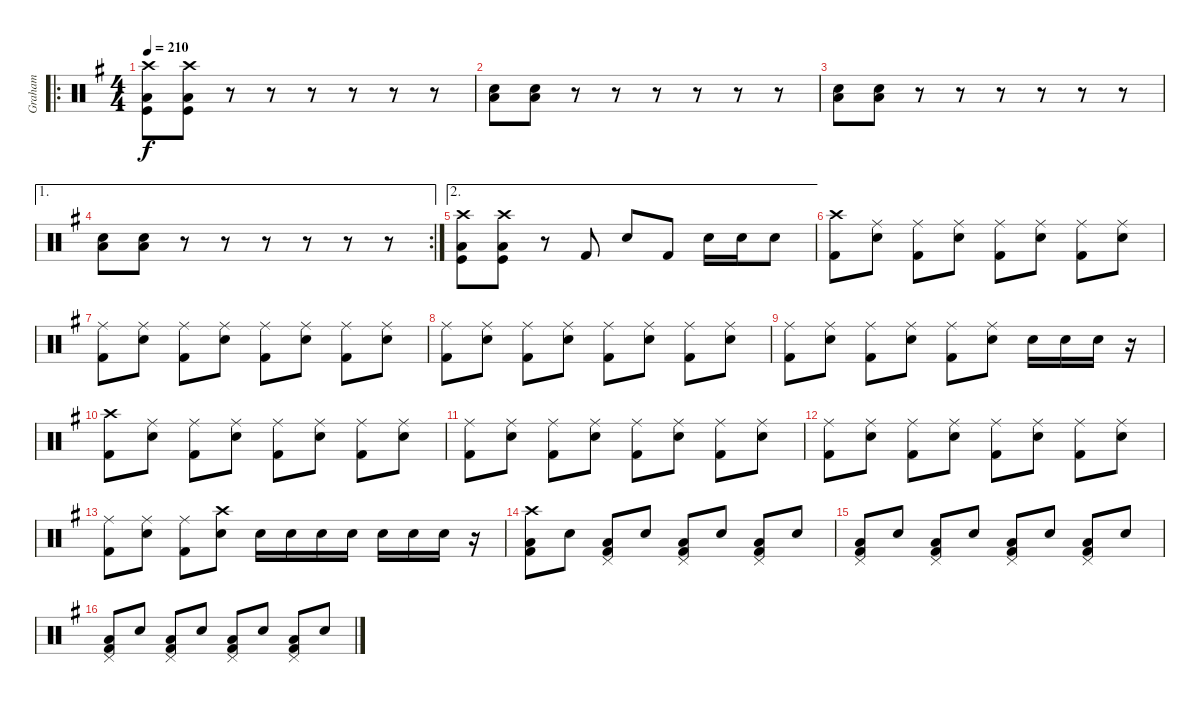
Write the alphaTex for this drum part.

\track ("Graham" "Graham") {instrument percussion}
\staff {score}
\articulation defaults
\ro
\ts (4 4)
\tempo 210
\clef neutral
\ks g
("Crash high (hit)" "Low Floor Tom (hit)" "Kick (hit)").8{dy f} ("Crash high (hit)" "Low Floor Tom (hit)" "Kick (hit)").8 r.8 r.8 r.8 r.8 r.8 r.8 |
("Electric Snare (hit)" "Low Floor Tom (hit)").8 ("Electric Snare (hit)" "Low Floor Tom (hit)").8 r.8 r.8 r.8 r.8 r.8 r.8 |
("Electric Snare (hit)" "Low Floor Tom (hit)").8 ("Electric Snare (hit)" "Low Floor Tom (hit)").8 r.8 r.8 r.8 r.8 r.8 r.8 |
\ae 1
\rc 2
("Electric Snare (hit)" "Low Floor Tom (hit)").8 ("Electric Snare (hit)" "Low Floor Tom (hit)").8 r.8 r.8 r.8 r.8 r.8 r.8 |
\ae 2
("Crash high (hit)" "Low Floor Tom (hit)" "Kick (hit)").8 ("Crash high (hit)" "Low Floor Tom (hit)" "Kick (hit)").8 r.8 "Kick (hit) 2".8 "Electric Snare (hit)".8 "Kick (hit) 2".8 "Electric Snare (hit)".16 "Electric Snare (hit)".16 "Electric Snare (hit)".8 |
("Crash high (hit)" "Kick (hit) 2").8 ("Ride (middle)" "Electric Snare (hit)").8 ("Ride (middle)" "Kick (hit) 2").8 ("Ride (middle)" "Electric Snare (hit)").8 ("Ride (middle)" "Kick (hit) 2").8 ("Ride (middle)" "Electric Snare (hit)").8 ("Ride (middle)" "Kick (hit) 2").8 ("Ride (middle)" "Electric Snare (hit)").8 |
("Ride (middle)" "Kick (hit) 2").8 ("Ride (middle)" "Electric Snare (hit)").8 ("Ride (middle)" "Kick (hit) 2").8 ("Ride (middle)" "Electric Snare (hit)").8 ("Ride (middle)" "Kick (hit) 2").8 ("Ride (middle)" "Electric Snare (hit)").8 ("Ride (middle)" "Kick (hit) 2").8 ("Ride (middle)" "Electric Snare (hit)").8 |
("Ride (middle)" "Kick (hit) 2").8 ("Ride (middle)" "Electric Snare (hit)").8 ("Ride (middle)" "Kick (hit) 2").8 ("Ride (middle)" "Electric Snare (hit)").8 ("Ride (middle)" "Kick (hit) 2").8 ("Ride (middle)" "Electric Snare (hit)").8 ("Ride (middle)" "Kick (hit) 2").8 ("Ride (middle)" "Electric Snare (hit)").8 |
("Ride (middle)" "Kick (hit) 2").8 ("Ride (middle)" "Electric Snare (hit)").8 ("Ride (middle)" "Kick (hit) 2").8 ("Ride (middle)" "Electric Snare (hit)").8 ("Ride (middle)" "Kick (hit) 2").8 ("Ride (middle)" "Electric Snare (hit)").8 "Electric Snare (hit)".16 "Electric Snare (hit)".16 "Electric Snare (hit)".16 r.16 |
("Crash high (hit)" "Kick (hit) 2").8 ("Ride (middle)" "Electric Snare (hit)").8 ("Ride (middle)" "Kick (hit) 2").8 ("Ride (middle)" "Electric Snare (hit)").8 ("Ride (middle)" "Kick (hit) 2").8 ("Ride (middle)" "Electric Snare (hit)").8 ("Ride (middle)" "Kick (hit) 2").8 ("Ride (middle)" "Electric Snare (hit)").8 |
("Ride (middle)" "Kick (hit) 2").8 ("Ride (middle)" "Electric Snare (hit)").8 ("Ride (middle)" "Kick (hit) 2").8 ("Ride (middle)" "Electric Snare (hit)").8 ("Ride (middle)" "Kick (hit) 2").8 ("Ride (middle)" "Electric Snare (hit)").8 ("Ride (middle)" "Kick (hit) 2").8 ("Ride (middle)" "Electric Snare (hit)").8 |
("Ride (middle)" "Kick (hit) 2").8 ("Ride (middle)" "Electric Snare (hit)").8 ("Ride (middle)" "Kick (hit) 2").8 ("Ride (middle)" "Electric Snare (hit)").8 ("Ride (middle)" "Kick (hit) 2").8 ("Ride (middle)" "Electric Snare (hit)").8 ("Ride (middle)" "Kick (hit) 2").8 ("Ride (middle)" "Electric Snare (hit)").8 |
("Ride (middle)" "Kick (hit) 2").8 ("Ride (middle)" "Electric Snare (hit)").8 ("Ride (middle)" "Kick (hit) 2").8 ("Crash high (hit)" "Electric Snare (hit)").8 "Electric Snare (hit)".16 "Electric Snare (hit)".16 "Electric Snare (hit)".16 "Electric Snare (hit)".16 "Electric Snare (hit)".16 "Electric Snare (hit)".16 "Electric Snare (hit)".16 r.16 |
("Crash high (hit)" "Low Floor Tom (hit)" "Kick (hit) 2").8 "Electric Snare (hit)".8 ("Pedal Hi-Hat (hit)" "Low Floor Tom (hit)" "Kick (hit) 2").8 "Electric Snare (hit)".8 ("Pedal Hi-Hat (hit)" "Low Floor Tom (hit)" "Kick (hit) 2").8 "Electric Snare (hit)".8 ("Pedal Hi-Hat (hit)" "Low Floor Tom (hit)" "Kick (hit) 2").8 "Electric Snare (hit)".8 |
("Pedal Hi-Hat (hit)" "Low Floor Tom (hit)" "Kick (hit) 2").8 "Electric Snare (hit)".8 ("Pedal Hi-Hat (hit)" "Low Floor Tom (hit)" "Kick (hit) 2").8 "Electric Snare (hit)".8 ("Pedal Hi-Hat (hit)" "Low Floor Tom (hit)" "Kick (hit) 2").8 "Electric Snare (hit)".8 ("Pedal Hi-Hat (hit)" "Low Floor Tom (hit)" "Kick (hit) 2").8 "Electric Snare (hit)".8 |
("Pedal Hi-Hat (hit)" "Low Floor Tom (hit)" "Kick (hit) 2").8 "Electric Snare (hit)".8 ("Pedal Hi-Hat (hit)" "Low Floor Tom (hit)" "Kick (hit) 2").8 "Electric Snare (hit)".8 ("Pedal Hi-Hat (hit)" "Low Floor Tom (hit)" "Kick (hit) 2").8 "Electric Snare (hit)".8 ("Pedal Hi-Hat (hit)" "Low Floor Tom (hit)" "Kick (hit) 2").8 "Electric Snare (hit)".8
